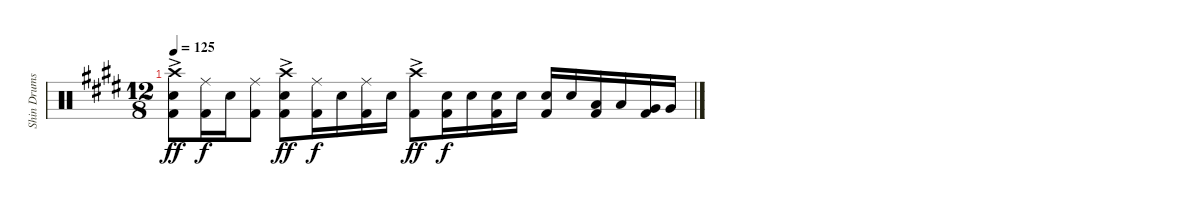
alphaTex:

\track ("Shin Drums" "Shin Drums") {instrument percussion}
\staff {score}
\articulation defaults
\ts (12 8)
\tempo 125
\clef neutral
\ks e
("Crash high (hit)"{ac} "Snare (hit) 2" "Kick (hit) 2").8{dy ff} ("Ride (middle)" "Kick (hit) 2").16{dy f} "Snare (hit) 2".16 ("Ride (middle)" "Kick (hit) 2").8 ("Crash high (hit)"{ac} "Snare (hit) 2" "Kick (hit) 2").8{dy ff} ("Ride (middle)" "Kick (hit) 2").16{dy f} "Snare (hit) 2".16 ("Ride (middle)" "Kick (hit) 2").16 "Snare (hit) 2".16 ("Crash high (hit)"{ac} "Kick (hit) 2").8{dy ff} ("Snare (hit) 2" "Kick (hit) 2").16{dy f} "Snare (hit) 2".16 ("Snare (hit) 2" "Kick (hit) 2").16 "Snare (hit) 2".16 ("Snare (hit) 2" "Kick (hit) 2").16 "Snare (hit) 2".16 ("Low Tom (hit)" "Kick (hit) 2").16 "Low Tom (hit)".16 ("Very Low Tom (hit)" "Kick (hit) 2").16 "Very Low Tom (hit)".16
